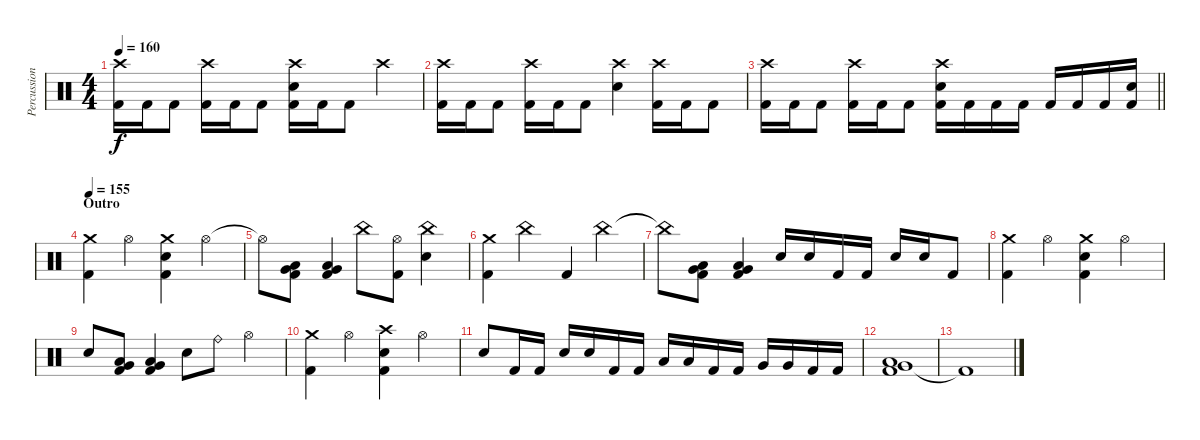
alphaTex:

\track ("Percussion" "Percussion") {instrument percussion}
\staff {score}
\articulation defaults
\ts (4 4)
\tempo 160
\clef neutral
\ks c
("Crash high (hit)" "Kick (hit) 2").16{dy f} "Kick (hit) 2".16 "Kick (hit) 2".8 ("Crash high (hit)" "Kick (hit) 2").16 "Kick (hit) 2".16 "Kick (hit) 2".8 ("Crash high (hit)" "Electric Snare (hit)" "Kick (hit) 2").16 "Kick (hit) 2".16 "Kick (hit) 2".8 "Crash high (hit)".4 |
("Crash high (hit)" "Kick (hit) 2").16 "Kick (hit) 2".16 "Kick (hit) 2".8 ("Crash high (hit)" "Kick (hit) 2").16 "Kick (hit) 2".16 "Kick (hit) 2".8 ("Crash high (hit)" "Electric Snare (hit)").4 ("Crash high (hit)" "Kick (hit) 2").16 "Kick (hit) 2".16 "Kick (hit) 2".8 |
\barLineRight lightlight
("Crash high (hit)" "Kick (hit) 2").16 "Kick (hit) 2".16 "Kick (hit) 2".8 ("Crash high (hit)" "Kick (hit) 2").16 "Kick (hit) 2".16 "Kick (hit) 2".8 ("Crash high (hit)" "Electric Snare (hit)" "Kick (hit) 2").16 "Kick (hit) 2".16 "Kick (hit) 2".16 "Kick (hit) 2".16 "Kick (hit) 2".16 "Kick (hit) 2".16 "Kick (hit) 2".16 ("Electric Snare (hit)" "Kick (hit) 2").16 |
\section ("" "Outro")
\tempo 155
("Crash medium (hit)" "Kick (hit) 2").4 "Hi-Hat (open)".4 ("Crash medium (hit)" "Electric Snare (hit)" "Kick (hit) 2").4 "Hi-Hat (open)".4 |
"Hi-Hat (open)"{t}.8 ("Very Low Tom (hit)" "Low Floor Tom (hit)" "Kick (hit) 2").8 ("Very Low Tom (hit)" "Low Floor Tom (hit)" "Kick (hit) 2").4 "China (hit)".8 ("Hi-Hat (open)" "Kick (hit) 2").8 ("China (hit)" "Electric Snare (hit)").4 |
("Crash medium (hit)" "Kick (hit) 2").4 "China (hit)".4 "Kick (hit) 2".4 "China (hit)".4 |
"China (hit)"{t}.8 ("Very Low Tom (hit)" "Low Floor Tom (hit)" "Kick (hit) 2").8 ("Very Low Tom (hit)" "Low Floor Tom (hit)" "Kick (hit) 2").4 "Electric Snare (hit)".16 "Electric Snare (hit)".16 "Kick (hit) 2".16 "Kick (hit) 2".16 "Electric Snare (hit)".16 "Electric Snare (hit)".16 "Kick (hit) 2".8 |
("Crash medium (hit)" "Kick (hit) 2").4 "Hi-Hat (open)".4 ("Crash medium (hit)" "Electric Snare (hit)" "Kick (hit) 2").4 "Hi-Hat (open)".4 |
"Electric Snare (hit)".8 ("Very Low Tom (hit)" "Low Floor Tom (hit)" "Kick (hit) 2").8 ("Very Low Tom (hit)" "Low Floor Tom (hit)" "Kick (hit) 2").4 "Electric Snare (hit)".8 "Ride (bell)".8 "Hi-Hat (open)".4 |
("Crash medium (hit)" "Kick (hit) 2").4 "Hi-Hat (open)".4 ("Crash high (hit)" "Electric Snare (hit)" "Kick (hit) 2").4 "Hi-Hat (open)".4 |
"Electric Snare (hit)".8 "Kick (hit) 2".16 "Kick (hit) 2".16 "Electric Snare (hit)".16 "Electric Snare (hit)".16 "Kick (hit) 2".16 "Kick (hit) 2".16 "Low Tom (hit)".16 "Low Tom (hit)".16 "Kick (hit) 2".16 "Kick (hit) 2".16 "Very Low Tom (hit)".16 "Very Low Tom (hit)".16 "Kick (hit) 2".16 "Kick (hit) 2".16 |
("Very Low Tom (hit)" "Low Floor Tom (hit)" "Kick (hit) 2").1 |
"Kick (hit) 2"{t}.1
